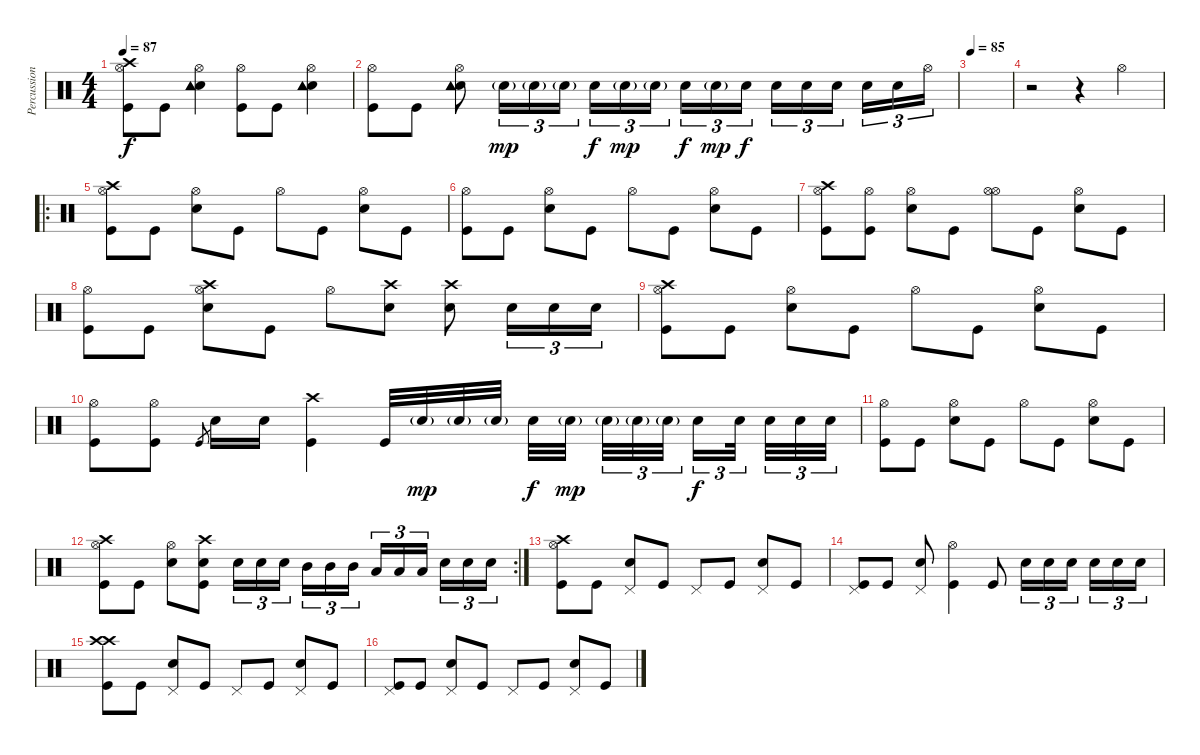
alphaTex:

\track ("Percussions" "Percussion") {instrument percussion}
\staff {score}
\articulation defaults
\ts (4 4)
\tempo 87
\clef neutral
\ks c
("Hi-Hat (open)" "Kick (hit)" "Crash high (hit)").8{dy f} "Kick (hit)".8 ("Hi-Hat (open)" "Snare (hit) 2" "Tambourine (hit)" "Tambourine (hit)").4 ("Hi-Hat (open)" "Kick (hit)").8 "Kick (hit)".8 ("Hi-Hat (open)" "Snare (hit) 2" "Tambourine (hit)" "Tambourine (hit)").4 |
("Hi-Hat (open)" "Kick (hit)").8 "Kick (hit)".8 ("Hi-Hat (open)" "Snare (hit) 2" "Tambourine (hit)" "Tambourine (hit)").8 "Snare (hit) 2"{g}.16{tu (3 2) dy mp} "Snare (hit) 2"{g}.16{tu (3 2)} "Snare (hit) 2"{g}.16{tu (3 2)} "Snare (hit) 2".16{tu (3 2) dy f} "Snare (hit) 2"{g}.16{tu (3 2) dy mp} "Snare (hit) 2"{g}.16{tu (3 2)} "Snare (hit) 2".16{tu (3 2) dy f} "Snare (hit) 2"{g}.16{tu (3 2) dy mp} "Snare (hit) 2".16{tu (3 2) dy f} "Snare (hit) 2".16{tu (3 2)} "Snare (hit) 2".16{tu (3 2)} "Snare (hit) 2".16{tu (3 2)} "Snare (hit) 2".16{tu (3 2)} "Snare (hit) 2".16{tu (3 2)} "Hi-Hat (open)".16{tu (3 2)} |
\tempo 85
|
r.2{volume 13} r.4 "Hi-Hat (open)".4 |
\ro
("Hi-Hat (open)" "Kick (hit)" "Crash high (hit)").8{volume 13} "Kick (hit)".8 ("Hi-Hat (open)" "Snare (hit) 2").8 "Kick (hit)".8 "Hi-Hat (open)".8 "Kick (hit)".8 ("Hi-Hat (open)" "Snare (hit) 2").8 "Kick (hit)".8 |
("Hi-Hat (open)" "Kick (hit)").8 "Kick (hit)".8 ("Hi-Hat (open)" "Snare (hit) 2").8 "Kick (hit)".8 "Hi-Hat (open)".8 "Kick (hit)".8 ("Hi-Hat (open)" "Snare (hit) 2").8 "Kick (hit)".8 |
("Hi-Hat (open)" "Kick (hit)" "Crash high (hit)").8 ("Hi-Hat (open)" "Kick (hit)").8 ("Hi-Hat (open)" "Snare (hit) 2").8 "Kick (hit)".8 ("Hi-Hat (open)" "Hi-Hat (open)").8 "Kick (hit)".8 ("Hi-Hat (open)" "Snare (hit) 2").8 "Kick (hit)".8 |
("Hi-Hat (open)" "Kick (hit)").8 "Kick (hit)".8 ("Hi-Hat (open)" "Snare (hit) 2" "Crash high (hit)").8 "Kick (hit)".8 "Hi-Hat (open)".8 ("Snare (hit) 2" "Crash high (hit)").8 ("Snare (hit) 2" "Crash high (hit)").8 "Snare (hit) 2".16{tu (3 2)} "Snare (hit) 2".16{tu (3 2)} "Snare (hit) 2".16{tu (3 2)} |
("Hi-Hat (open)" "Kick (hit)" "Crash high (hit)").8 "Kick (hit)".8 ("Hi-Hat (open)" "Snare (hit) 2").8 "Kick (hit)".8 "Hi-Hat (open)".8 "Kick (hit)".8 ("Hi-Hat (open)" "Snare (hit) 2").8 "Kick (hit)".8 |
("Hi-Hat (open)" "Kick (hit)").8 ("Hi-Hat (open)" "Kick (hit)").8 "Kick (hit)".8{gr} "Snare (hit) 2".16 "Snare (hit) 2".16 ("Kick (hit)" "Crash high (hit)").4 "Kick (hit)".32 "Snare (hit) 2"{g}.32{dy mp} "Snare (hit) 2"{g}.32 "Snare (hit) 2"{g}.32 "Snare (hit) 2".32{dy f} "Snare (hit) 2"{g}.32{dy mp} "Snare (hit) 2"{g}.32{tu (3 2)} "Snare (hit) 2"{g}.32{tu (3 2)} "Snare (hit) 2"{g}.32{tu (3 2)} "Snare (hit) 2".16{tu (3 2) dy f} "Snare (hit) 2".32{tu (3 2)} "Snare (hit) 2".32{tu (3 2)} "Snare (hit) 2".32{tu (3 2)} "Snare (hit) 2".32{tu (3 2)} |
("Hi-Hat (open)" "Kick (hit)").8 "Kick (hit)".8 ("Hi-Hat (open)" "Snare (hit) 2").8 "Kick (hit)".8 "Hi-Hat (open)".8 "Kick (hit)".8 ("Hi-Hat (open)" "Snare (hit) 2").8 "Kick (hit)".8 |
\rc 2
("Hi-Hat (open)" "Kick (hit)" "Crash high (hit)").8 "Kick (hit)".8 ("Hi-Hat (open)" "Snare (hit) 2").8 ("Kick (hit)" "Snare (hit) 2" "Crash high (hit)").8 "Snare (hit) 2".16{tu (3 2)} "Snare (hit) 2".16{tu (3 2)} "Snare (hit) 2".16{tu (3 2)} "Mid Tom (hit)".16{tu (3 2)} "Mid Tom (hit)".16{tu (3 2)} "Mid Tom (hit)".16{tu (3 2)} "Low Tom (hit)".16{tu (3 2)} "Low Tom (hit)".16{tu (3 2)} "Low Tom (hit)".16{tu (3 2)} "Snare (hit) 2".16{tu (3 2)} "Snare (hit) 2".16{tu (3 2)} "Snare (hit) 2".16{tu (3 2)} |
("Hi-Hat (open)" "Kick (hit)" "Crash high (hit)").8{volume 10} "Kick (hit)".8 ("Pedal Hi-Hat (hit)" "Snare (hit) 2").8 "Kick (hit)".8 "Pedal Hi-Hat (hit)".8 "Kick (hit)".8 ("Pedal Hi-Hat (hit)" "Snare (hit) 2").8 "Kick (hit)".8 |
("Pedal Hi-Hat (hit)" "Kick (hit)").8 "Kick (hit)".8 ("Pedal Hi-Hat (hit)" "Snare (hit) 2").8{volume 13} ("Hi-Hat (open)" "Kick (hit)").4 "Kick (hit)".8 "Snare (hit) 2".16{tu (3 2)} "Snare (hit) 2".16{tu (3 2)} "Snare (hit) 2".16{tu (3 2)} "Snare (hit) 2".16{tu (3 2)} "Snare (hit) 2".16{tu (3 2)} "Snare (hit) 2".16{tu (3 2)} |
("Crash high (hit)" "Kick (hit)" "Crash high (hit)").8{volume 10} "Kick (hit)".8 ("Pedal Hi-Hat (hit)" "Snare (hit) 2").8 "Kick (hit)".8 "Pedal Hi-Hat (hit)".8 "Kick (hit)".8 ("Pedal Hi-Hat (hit)" "Snare (hit) 2").8 "Kick (hit)".8 |
("Pedal Hi-Hat (hit)" "Kick (hit)").8 "Kick (hit)".8 ("Pedal Hi-Hat (hit)" "Snare (hit) 2").8 "Kick (hit)".8 "Pedal Hi-Hat (hit)".8 "Kick (hit)".8 ("Pedal Hi-Hat (hit)" "Snare (hit) 2").8 "Kick (hit)".8
